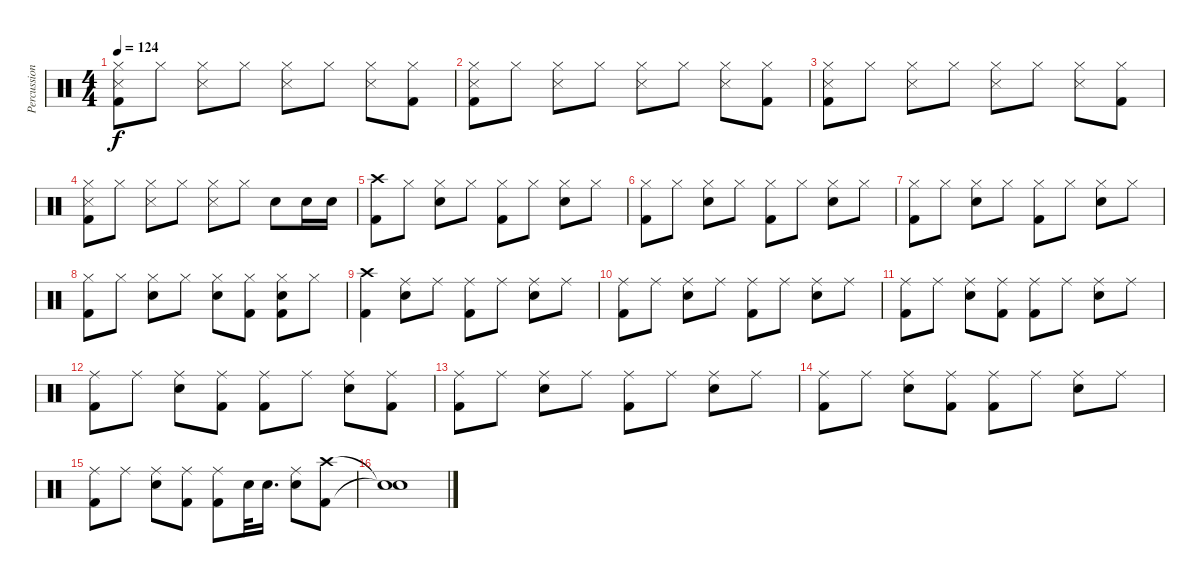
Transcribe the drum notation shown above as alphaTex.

\track ("Percussion" "Percussion") {instrument percussion}
\staff {score}
\articulation defaults
\ts (4 4)
\tempo 124
\clef neutral
\ks c
("Hi-Hat (closed)" "Snare (side stick) 3" "Kick (hit) 2").8{dy f} "Hi-Hat (closed)".8 ("Hi-Hat (closed)" "Snare (side stick) 3").8 "Hi-Hat (closed)".8 ("Hi-Hat (closed)" "Snare (side stick) 3").8 "Hi-Hat (closed)".8 ("Hi-Hat (closed)" "Snare (side stick) 3").8 ("Hi-Hat (closed)" "Kick (hit) 2").8 |
("Hi-Hat (closed)" "Snare (side stick) 3" "Kick (hit) 2").8 "Hi-Hat (closed)".8 ("Hi-Hat (closed)" "Snare (side stick) 3").8 "Hi-Hat (closed)".8 ("Hi-Hat (closed)" "Snare (side stick) 3").8 "Hi-Hat (closed)".8 ("Hi-Hat (closed)" "Snare (side stick) 3").8 ("Hi-Hat (closed)" "Kick (hit) 2").8 |
("Hi-Hat (closed)" "Snare (side stick) 3" "Kick (hit) 2").8 "Hi-Hat (closed)".8 ("Hi-Hat (closed)" "Snare (side stick) 3").8 "Hi-Hat (closed)".8 ("Hi-Hat (closed)" "Snare (side stick) 3").8 "Hi-Hat (closed)".8 ("Hi-Hat (closed)" "Snare (side stick) 3").8 ("Hi-Hat (closed)" "Kick (hit) 2").8 |
("Hi-Hat (closed)" "Snare (side stick) 3" "Kick (hit) 2").8 "Hi-Hat (closed)".8 ("Hi-Hat (closed)" "Snare (side stick) 3").8 "Hi-Hat (closed)".8 ("Hi-Hat (closed)" "Snare (side stick) 3").8 "Hi-Hat (closed)".8 "Snare (hit) 2".8 "Snare (hit) 2".16 "Snare (hit) 2".16 |
("Crash high (hit)" "Kick (hit) 2").8 "Hi-Hat (closed)".8 ("Hi-Hat (closed)" "Snare (hit) 2").8 "Hi-Hat (closed)".8 ("Hi-Hat (closed)" "Kick (hit) 2").8 "Hi-Hat (closed)".8 ("Hi-Hat (closed)" "Snare (hit) 2").8 "Hi-Hat (closed)".8 |
("Hi-Hat (closed)" "Kick (hit) 2").8 "Hi-Hat (closed)".8 ("Hi-Hat (closed)" "Snare (hit) 2").8 "Hi-Hat (closed)".8 ("Hi-Hat (closed)" "Kick (hit) 2").8 "Hi-Hat (closed)".8 ("Hi-Hat (closed)" "Snare (hit) 2").8 "Hi-Hat (closed)".8 |
("Hi-Hat (closed)" "Kick (hit) 2").8 "Hi-Hat (closed)".8 ("Hi-Hat (closed)" "Snare (hit) 2").8 "Hi-Hat (closed)".8 ("Hi-Hat (closed)" "Kick (hit) 2").8 "Hi-Hat (closed)".8 ("Hi-Hat (closed)" "Snare (hit) 2").8 "Hi-Hat (closed)".8 |
("Hi-Hat (closed)" "Kick (hit) 2").8 "Hi-Hat (closed)".8 ("Hi-Hat (closed)" "Snare (hit) 2").8 "Hi-Hat (closed)".8 ("Hi-Hat (closed)" "Snare (hit) 2").8 ("Hi-Hat (closed)" "Kick (hit) 2").8 ("Hi-Hat (closed)" "Snare (hit) 2" "Kick (hit) 2").8 "Hi-Hat (closed)".8 |
("Crash high (hit)" "Kick (hit) 2").4 ("Ride (middle)" "Snare (hit) 2").8 "Ride (middle)".8 ("Ride (middle)" "Kick (hit) 2").8 "Ride (middle)".8 ("Ride (middle)" "Snare (hit) 2").8 "Ride (middle)".8 |
("Ride (middle)" "Kick (hit) 2").8 "Ride (middle)".8 ("Ride (middle)" "Snare (hit) 2").8 "Ride (middle)".8 ("Ride (middle)" "Kick (hit) 2").8 "Ride (middle)".8 ("Ride (middle)" "Snare (hit) 2").8 "Ride (middle)".8 |
("Ride (middle)" "Kick (hit) 2").8 "Ride (middle)".8 ("Ride (middle)" "Snare (hit) 2").8 ("Ride (middle)" "Kick (hit) 2").8 ("Ride (middle)" "Kick (hit) 2").8 "Ride (middle)".8 ("Ride (middle)" "Snare (hit) 2").8 "Ride (middle)".8 |
("Ride (middle)" "Kick (hit) 2").8 "Ride (middle)".8 ("Ride (middle)" "Snare (hit) 2").8 ("Ride (middle)" "Kick (hit) 2").8 ("Ride (middle)" "Kick (hit) 2").8 "Ride (middle)".8 ("Ride (middle)" "Snare (hit) 2").8 ("Ride (middle)" "Kick (hit) 2").8 |
("Ride (middle)" "Kick (hit) 2").8 "Ride (middle)".8 ("Ride (middle)" "Snare (hit) 2").8 "Ride (middle)".8 ("Ride (middle)" "Kick (hit) 2").8 "Ride (middle)".8 ("Ride (middle)" "Snare (hit) 2").8 "Ride (middle)".8 |
("Ride (middle)" "Kick (hit) 2").8 "Ride (middle)".8 ("Ride (middle)" "Snare (hit) 2").8 ("Ride (middle)" "Kick (hit) 2").8 ("Ride (middle)" "Kick (hit) 2").8 "Ride (middle)".8 ("Ride (middle)" "Snare (hit) 2").8 "Ride (middle)".8 |
("Ride (middle)" "Kick (hit) 2").8 "Ride (middle)".8 ("Ride (middle)" "Snare (hit) 2").8 ("Ride (middle)" "Kick (hit) 2").8 ("Ride (middle)" "Kick (hit) 2").8 "Snare (hit) 2".32 "Snare (hit) 2".16{d} ("Ride (middle)" "Snare (hit) 2").8 ("Crash high (hit)" "Kick (hit) 2").8 |
("Snare (hit)"{t} "Snare (hit)"{t}).1
